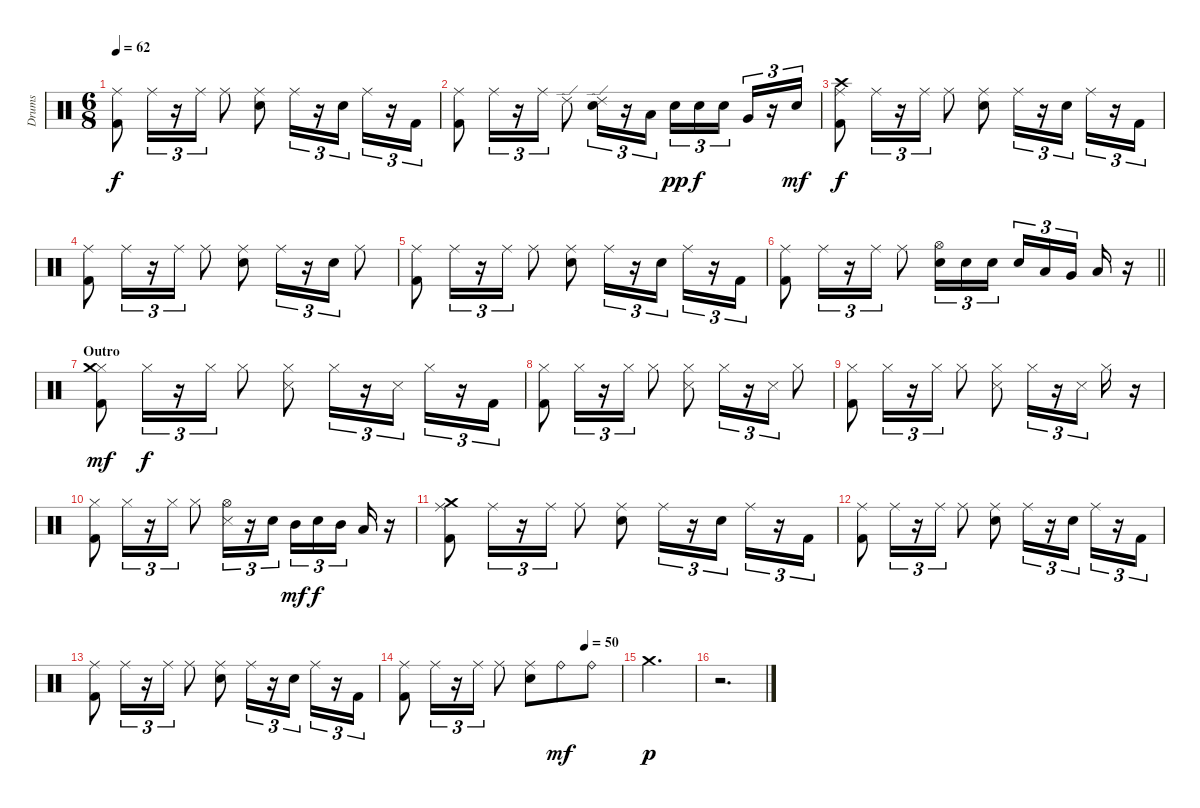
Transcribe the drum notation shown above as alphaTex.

\track ("Drums" "Drums") {instrument percussion}
\staff {score}
\articulation defaults
\ts (6 8)
\tempo 62
\clef neutral
\ks c
("Ride (middle)" "Kick (hit) 2").8{dy f} "Ride (middle)".16{tu (3 2)} r.16{tu (3 2)} "Ride (middle)".16{tu (3 2)} "Ride (middle)".8 ("Ride (middle)" "Electric Snare (hit)").8 "Ride (middle)".16{tu (3 2)} r.16{tu (3 2)} "Electric Snare (hit)".16{tu (3 2)} "Ride (middle)".16{tu (3 2)} r.16{tu (3 2)} "Kick (hit) 2".16{tu (3 2)} |
("Ride (middle)" "Kick (hit) 2").8 "Ride (middle)".16{tu (3 2)} r.16{tu (3 2)} "Ride (middle)".16{tu (3 2)} "Ride (edge) 2".8 ("Ride (edge) 2" "Electric Snare (hit)").16{tu (3 2)} r.16{tu (3 2)} "Low Tom (hit)".16{tu (3 2) beam splitsecondary} "Electric Snare (hit)".16{tu (3 2) dy pp} "Electric Snare (hit)".16{tu (3 2) dy f} "Electric Snare (hit)".16{tu (3 2) beam splitsecondary} "Very Low Tom (hit)".16{tu (3 2)} r.16{tu (3 2)} "Electric Snare (hit)".16{tu (3 2) dy mf} |
("Ride (middle)" "Crash high (hit)" "Kick (hit) 2").8{dy f} "Ride (middle)".16{tu (3 2)} r.16{tu (3 2)} "Ride (middle)".16{tu (3 2)} "Ride (middle)".8 ("Ride (middle)" "Electric Snare (hit)").8 "Ride (middle)".16{tu (3 2)} r.16{tu (3 2)} "Electric Snare (hit)".16{tu (3 2)} "Ride (middle)".16{tu (3 2)} r.16{tu (3 2)} "Kick (hit) 2".16{tu (3 2)} |
("Ride (middle)" "Kick (hit) 2").8 "Ride (middle)".16{tu (3 2)} r.16{tu (3 2)} "Ride (middle)".16{tu (3 2)} "Ride (middle)".8 ("Ride (middle)" "Electric Snare (hit)").8 "Ride (middle)".16{tu (3 2)} r.16{tu (3 2)} "Electric Snare (hit)".16{tu (3 2)} "Ride (middle)".8 |
("Ride (middle)" "Kick (hit) 2").8 "Ride (middle)".16{tu (3 2)} r.16{tu (3 2)} "Ride (middle)".16{tu (3 2)} "Ride (middle)".8 ("Ride (middle)" "Electric Snare (hit)").8 "Ride (middle)".16{tu (3 2)} r.16{tu (3 2)} "Electric Snare (hit)".16{tu (3 2)} "Ride (middle)".16{tu (3 2)} r.16{tu (3 2)} "Kick (hit) 2".16{tu (3 2)} |
\barLineRight lightlight
("Ride (middle)" "Kick (hit) 2").8 "Ride (middle)".16{tu (3 2)} r.16{tu (3 2)} "Ride (middle)".16{tu (3 2)} "Ride (middle)".8 ("Hi-Hat (open)" "Electric Snare (hit)").16{tu (3 2)} "Electric Snare (hit)".16{tu (3 2)} "Electric Snare (hit)".16{tu (3 2) beam splitsecondary} "Electric Snare (hit)".16{tu (3 2)} "Low Tom (hit)".16{tu (3 2)} "Very Low Tom (hit)".16{tu (3 2) beam splitsecondary} "Low Tom (hit)".16 r.16 |
\section ("" "Outro")
("Hi-Hat (closed)" "Crash medium (hit)" "Kick (hit) 2").8{dy mf} "Hi-Hat (closed)".16{tu (3 2) dy f} r.16{tu (3 2)} "Hi-Hat (closed)".16{tu (3 2)} "Hi-Hat (closed)".8 ("Hi-Hat (closed)" "Snare (side stick) 3").8 "Hi-Hat (closed)".16{tu (3 2)} r.16{tu (3 2)} "Snare (side stick) 3".16{tu (3 2)} "Hi-Hat (closed)".16{tu (3 2)} r.16{tu (3 2)} "Kick (hit) 2".16{tu (3 2)} |
("Hi-Hat (closed)" "Kick (hit) 2").8 "Hi-Hat (closed)".16{tu (3 2)} r.16{tu (3 2)} "Hi-Hat (closed)".16{tu (3 2)} "Hi-Hat (closed)".8 ("Hi-Hat (closed)" "Snare (side stick) 3").8 "Hi-Hat (closed)".16{tu (3 2)} r.16{tu (3 2)} "Snare (side stick) 3".16{tu (3 2)} "Hi-Hat (closed)".8 |
("Hi-Hat (closed)" "Kick (hit) 2").8 "Hi-Hat (closed)".16{tu (3 2)} r.16{tu (3 2)} "Hi-Hat (closed)".16{tu (3 2)} "Hi-Hat (closed)".8 ("Hi-Hat (closed)" "Snare (side stick) 3").8 "Hi-Hat (closed)".16{tu (3 2)} r.16{tu (3 2)} "Snare (side stick) 3".16{tu (3 2)} "Hi-Hat (closed)".16 r.16 |
("Hi-Hat (closed)" "Kick (hit) 2").8 "Hi-Hat (closed)".16{tu (3 2)} r.16{tu (3 2)} "Hi-Hat (closed)".16{tu (3 2)} "Hi-Hat (closed)".8 ("Hi-Hat (open)" "Snare (side stick) 3").16{tu (3 2)} r.16{tu (3 2)} "Electric Snare (hit)".16{tu (3 2) beam splitsecondary} "Mid Tom (hit)".16{tu (3 2) dy mf} "Electric Snare (hit)".16{tu (3 2) dy f} "Mid Tom (hit)".16{tu (3 2) beam splitsecondary} "Low Tom (hit)".16 r.16 |
("Ride (middle)" "Crash medium (hit)" "Kick (hit) 2").8 "Ride (middle)".16{tu (3 2)} r.16{tu (3 2)} "Ride (middle)".16{tu (3 2)} "Ride (middle)".8 ("Ride (middle)" "Electric Snare (hit)").8 "Ride (middle)".16{tu (3 2)} r.16{tu (3 2)} "Electric Snare (hit)".16{tu (3 2)} "Ride (middle)".16{tu (3 2)} r.16{tu (3 2)} "Kick (hit) 2".16{tu (3 2)} |
("Ride (middle)" "Kick (hit) 2").8 "Ride (middle)".16{tu (3 2)} r.16{tu (3 2)} "Ride (middle)".16{tu (3 2)} "Ride (middle)".8 ("Ride (middle)" "Electric Snare (hit)").8 "Ride (middle)".16{tu (3 2)} r.16{tu (3 2)} "Electric Snare (hit)".16{tu (3 2)} "Ride (middle)".16{tu (3 2)} r.16{tu (3 2)} "Kick (hit) 2".16{tu (3 2)} |
("Ride (middle)" "Kick (hit) 2").8 "Ride (middle)".16{tu (3 2)} r.16{tu (3 2)} "Ride (middle)".16{tu (3 2)} "Ride (middle)".8 ("Ride (middle)" "Electric Snare (hit)").8 "Ride (middle)".16{tu (3 2)} r.16{tu (3 2)} "Electric Snare (hit)".16{tu (3 2)} "Ride (middle)".16{tu (3 2)} r.16{tu (3 2)} "Kick (hit) 2".16{tu (3 2)} |
\tempo (50 0.8333333333333334)
("Ride (middle)" "Kick (hit) 2").8 "Ride (middle)".16{tu (3 2)} r.16{tu (3 2)} "Ride (middle)".16{tu (3 2)} "Ride (middle)".8 ("Ride (middle)" "Electric Snare (hit)").8 "Ride (bell)".8{dy mf} "Ride (bell)".8 |
"Crash medium (hit)".2{d dy p} |
r.2{d}
